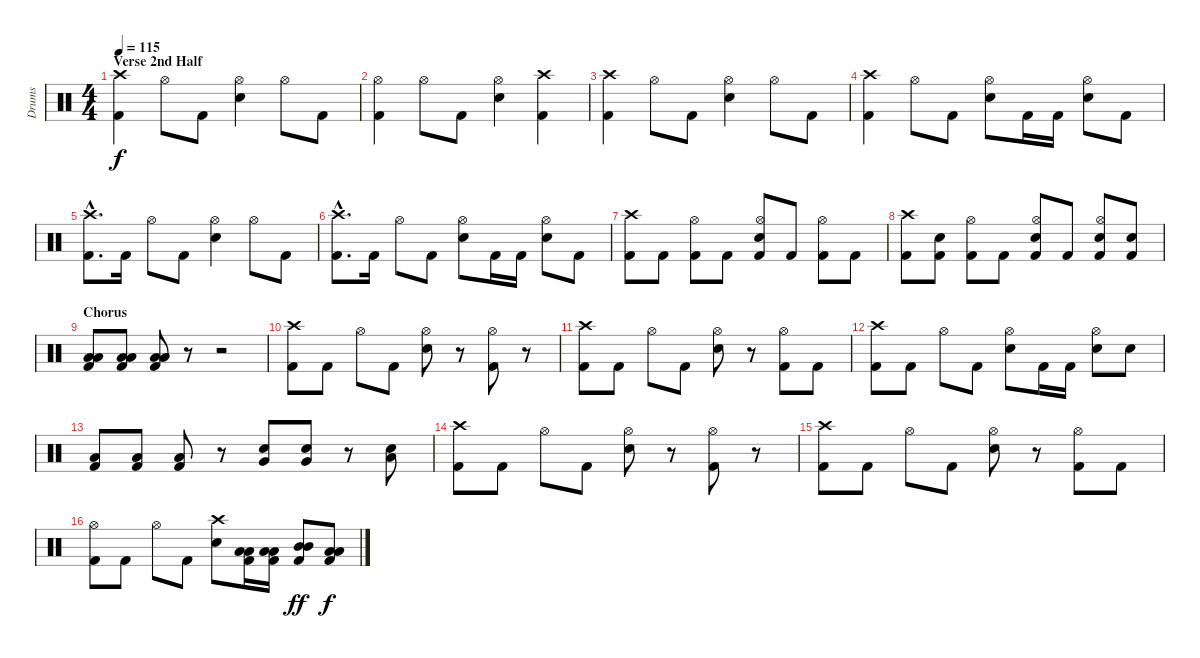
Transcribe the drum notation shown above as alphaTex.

\track ("Drums" "Drums") {instrument percussion}
\staff {score}
\articulation defaults
\ts (4 4)
\section ("" "Verse 2nd Half")
\tempo 115
\clef neutral
\ks c
("Crash high (hit)" "Kick (hit) 2").4{dy f} "Hi-Hat (open)".8 "Kick (hit) 2".8 ("Hi-Hat (open)" "Snare (hit) 2").4 "Hi-Hat (open)".8 "Kick (hit) 2".8 |
("Hi-Hat (open)" "Kick (hit) 2").4 "Hi-Hat (open)".8 "Kick (hit) 2".8 ("Hi-Hat (open)" "Snare (hit) 2").4 ("Crash high (hit)" "Kick (hit) 2").4 |
("Crash high (hit)" "Kick (hit) 2").4 "Hi-Hat (open)".8 "Kick (hit) 2".8 ("Hi-Hat (open)" "Snare (hit) 2").4 "Hi-Hat (open)".8 "Kick (hit) 2".8 |
("Crash high (hit)" "Kick (hit) 2").4 "Hi-Hat (open)".8 "Kick (hit) 2".8 ("Hi-Hat (open)" "Snare (hit) 2").8 "Kick (hit) 2".16 "Kick (hit) 2".16 ("Hi-Hat (open)" "Snare (hit) 2").8 "Kick (hit) 2".8 |
("Crash high (hit)"{hac} "Kick (hit) 2"{hac}).8{d} "Kick (hit) 2".16 "Hi-Hat (open)".8 "Kick (hit) 2".8 ("Hi-Hat (open)" "Snare (hit) 2").4 "Hi-Hat (open)".8 "Kick (hit) 2".8 |
("Crash high (hit)"{hac} "Kick (hit) 2"{hac}).8{d} "Kick (hit) 2".16 "Hi-Hat (open)".8 "Kick (hit) 2".8 ("Hi-Hat (open)" "Snare (hit) 2").8 "Kick (hit) 2".16 "Kick (hit) 2".16 ("Hi-Hat (open)" "Snare (hit) 2").8 "Kick (hit) 2".8 |
("Crash high (hit)" "Kick (hit) 2").8 "Kick (hit) 2".8 ("Hi-Hat (open)" "Kick (hit) 2").8 "Kick (hit) 2".8 ("Hi-Hat (open)" "Snare (hit) 2" "Kick (hit) 2").8 "Kick (hit) 2".8 ("Hi-Hat (open)" "Kick (hit) 2").8 "Kick (hit) 2".8 |
("Crash high (hit)" "Kick (hit) 2").8 ("Snare (hit) 2" "Kick (hit) 2").8 ("Hi-Hat (open)" "Kick (hit) 2").8 "Kick (hit) 2".8 ("Hi-Hat (open)" "Snare (hit) 2" "Kick (hit) 2").8 "Kick (hit) 2".8 ("Hi-Hat (open)" "Snare (hit) 2" "Kick (hit) 2").8 ("Snare (hit) 2" "Kick (hit) 2").8 |
\section ("" "Chorus")
("Low Floor Tom (hit)" "Low Floor Tom (hit)" "Kick (hit) 2").8 ("Low Floor Tom (hit)" "Low Floor Tom (hit)" "Kick (hit) 2").8 ("Low Floor Tom (hit)" "Low Floor Tom (hit)" "Kick (hit) 2").8 r.8 r.2 |
("Crash high (hit)" "Kick (hit) 2").8 "Kick (hit) 2".8 "Hi-Hat (open)".8 "Kick (hit) 2".8 ("Hi-Hat (open)" "Snare (hit) 2").8 r.8 ("Hi-Hat (open)" "Kick (hit) 2").8 r.8 |
("Crash high (hit)" "Kick (hit) 2").8 "Kick (hit) 2".8 "Hi-Hat (open)".8 "Kick (hit) 2".8 ("Hi-Hat (open)" "Snare (hit) 2").8 r.8 ("Hi-Hat (open)" "Kick (hit) 2").8 "Kick (hit) 2".8 |
("Crash high (hit)" "Kick (hit) 2").8 "Kick (hit) 2".8 "Hi-Hat (open)".8 "Kick (hit) 2".8 ("Hi-Hat (open)" "Snare (hit) 2").8 "Kick (hit) 2".16 "Kick (hit) 2".16 ("Hi-Hat (open)" "Snare (hit) 2").8 "Snare (hit) 2".8 |
("Low Floor Tom (hit)" "Kick (hit) 2").8 ("Low Floor Tom (hit)" "Kick (hit) 2").8 ("Low Floor Tom (hit)" "Kick (hit) 2").8 r.8 ("Very Low Tom (hit)" "Snare (hit) 2").8 ("Very Low Tom (hit)" "Snare (hit) 2").8 r.8 ("Low Floor Tom (hit)" "Snare (hit) 2").8 |
("Crash high (hit)" "Kick (hit) 2").8 "Kick (hit) 2".8 "Hi-Hat (open)".8 "Kick (hit) 2".8 ("Hi-Hat (open)" "Snare (hit) 2").8 r.8 ("Hi-Hat (open)" "Kick (hit) 2").8 r.8 |
("Crash high (hit)" "Kick (hit) 2").8 "Kick (hit) 2".8 "Hi-Hat (open)".8 "Kick (hit) 2".8 ("Hi-Hat (open)" "Snare (hit) 2").8 r.8 ("Hi-Hat (open)" "Kick (hit) 2").8 "Kick (hit) 2".8 |
("Hi-Hat (open)" "Kick (hit) 2").8 "Kick (hit) 2".8 "Hi-Hat (open)".8 "Kick (hit) 2".8 ("Crash high (hit)" "Snare (hit) 2").8 ("Low Tom (hit)" "Low Tom (hit)" "Kick (hit) 2").16 ("Low Tom (hit)" "Low Tom (hit)" "Kick (hit) 2").16 ("Mid Tom (hit)" "Mid Tom (hit)" "Kick (hit) 2").8{dy ff balance 16} ("Low Tom (hit)" "Low Tom (hit)" "Kick (hit) 2").8{dy f balance 0}
